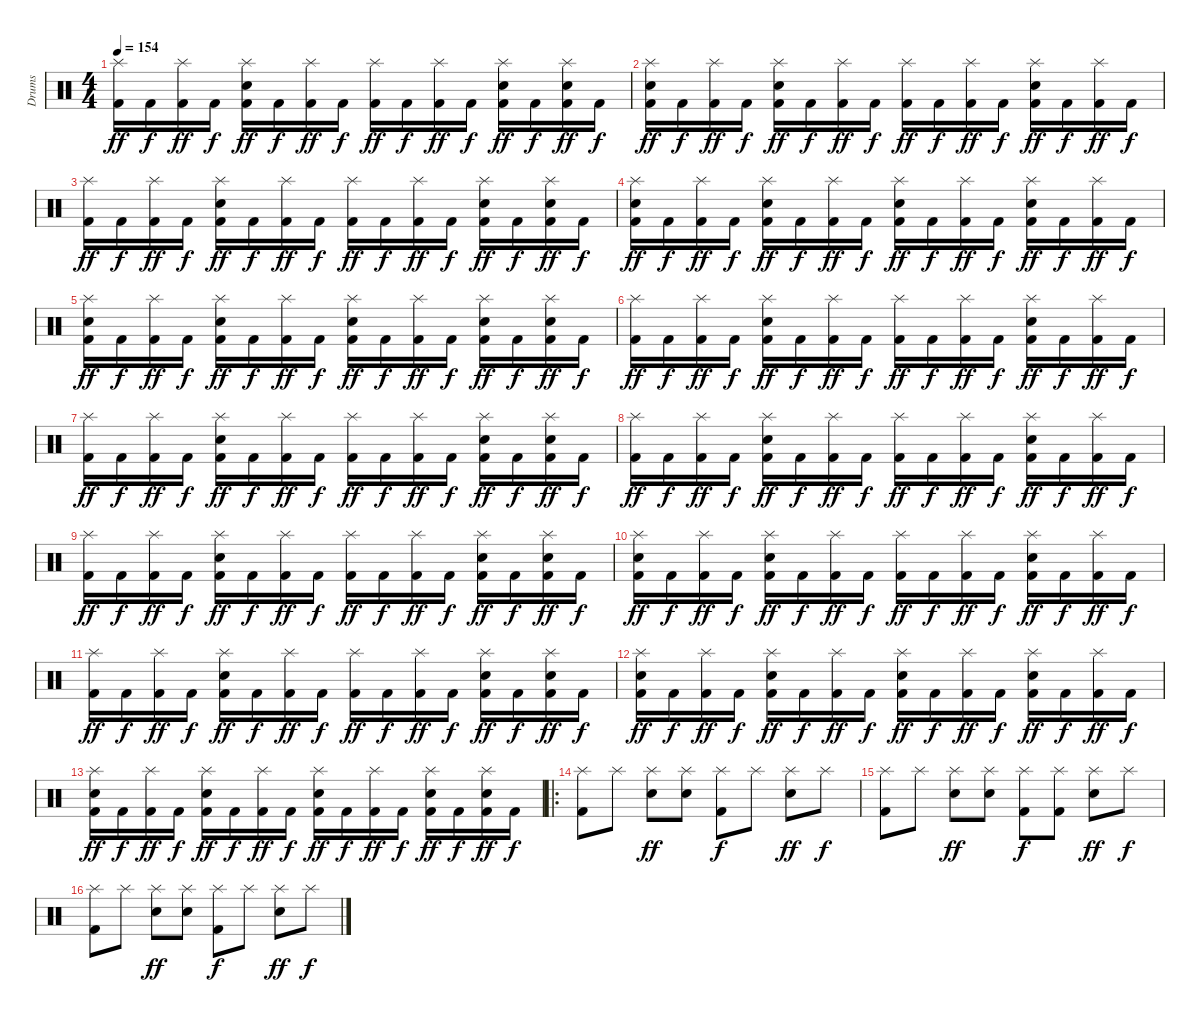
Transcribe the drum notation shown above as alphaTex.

\track ("Drums" "Drums") {instrument percussion}
\staff {score}
\articulation defaults
\ts (4 4)
\tempo 154
\clef neutral
\ks c
("Splash (hit)" "Kick (hit) 2").16{dy ff} "Kick (hit) 2".16{dy f} ("Splash (hit)" "Kick (hit) 2").16{dy ff} "Kick (hit) 2".16{dy f} ("Splash (hit)" "Snare (hit) 2" "Kick (hit) 2").16{dy ff} "Kick (hit) 2".16{dy f} ("Splash (hit)" "Kick (hit) 2").16{dy ff} "Kick (hit) 2".16{dy f} ("Splash (hit)" "Kick (hit) 2").16{dy ff} "Kick (hit) 2".16{dy f} ("Splash (hit)" "Kick (hit) 2").16{dy ff} "Kick (hit) 2".16{dy f} ("Splash (hit)" "Snare (hit) 2" "Kick (hit) 2").16{dy ff} "Kick (hit) 2".16{dy f} ("Splash (hit)" "Snare (hit) 2" "Kick (hit) 2").16{dy ff} "Kick (hit) 2".16{dy f} |
("Splash (hit)" "Snare (hit) 2" "Kick (hit) 2").16{dy ff} "Kick (hit) 2".16{dy f} ("Splash (hit)" "Kick (hit) 2").16{dy ff} "Kick (hit) 2".16{dy f} ("Splash (hit)" "Snare (hit) 2" "Kick (hit) 2").16{dy ff} "Kick (hit) 2".16{dy f} ("Splash (hit)" "Kick (hit) 2").16{dy ff} "Kick (hit) 2".16{dy f} ("Splash (hit)" "Kick (hit) 2").16{dy ff} "Kick (hit) 2".16{dy f} ("Splash (hit)" "Kick (hit) 2").16{dy ff} "Kick (hit) 2".16{dy f} ("Splash (hit)" "Snare (hit) 2" "Kick (hit) 2").16{dy ff} "Kick (hit) 2".16{dy f} ("Splash (hit)" "Kick (hit) 2").16{dy ff} "Kick (hit) 2".16{dy f} |
("Splash (hit)" "Kick (hit) 2").16{dy ff} "Kick (hit) 2".16{dy f} ("Splash (hit)" "Kick (hit) 2").16{dy ff} "Kick (hit) 2".16{dy f} ("Splash (hit)" "Snare (hit) 2" "Kick (hit) 2").16{dy ff} "Kick (hit) 2".16{dy f} ("Splash (hit)" "Kick (hit) 2").16{dy ff} "Kick (hit) 2".16{dy f} ("Splash (hit)" "Kick (hit) 2").16{dy ff} "Kick (hit) 2".16{dy f} ("Splash (hit)" "Kick (hit) 2").16{dy ff} "Kick (hit) 2".16{dy f} ("Splash (hit)" "Snare (hit) 2" "Kick (hit) 2").16{dy ff} "Kick (hit) 2".16{dy f} ("Splash (hit)" "Snare (hit) 2" "Kick (hit) 2").16{dy ff} "Kick (hit) 2".16{dy f} |
("Splash (hit)" "Snare (hit) 2" "Kick (hit) 2").16{dy ff} "Kick (hit) 2".16{dy f} ("Splash (hit)" "Kick (hit) 2").16{dy ff} "Kick (hit) 2".16{dy f} ("Splash (hit)" "Snare (hit) 2" "Kick (hit) 2").16{dy ff} "Kick (hit) 2".16{dy f} ("Splash (hit)" "Kick (hit) 2").16{dy ff} "Kick (hit) 2".16{dy f} ("Splash (hit)" "Snare (hit) 2" "Kick (hit) 2").16{dy ff} "Kick (hit) 2".16{dy f} ("Splash (hit)" "Kick (hit) 2").16{dy ff} "Kick (hit) 2".16{dy f} ("Splash (hit)" "Snare (hit) 2" "Kick (hit) 2").16{dy ff} "Kick (hit) 2".16{dy f} ("Splash (hit)" "Kick (hit) 2").16{dy ff} "Kick (hit) 2".16{dy f} |
("Splash (hit)" "Snare (hit) 2" "Kick (hit) 2").16{dy ff} "Kick (hit) 2".16{dy f} ("Splash (hit)" "Kick (hit) 2").16{dy ff} "Kick (hit) 2".16{dy f} ("Splash (hit)" "Snare (hit) 2" "Kick (hit) 2").16{dy ff} "Kick (hit) 2".16{dy f} ("Splash (hit)" "Kick (hit) 2").16{dy ff} "Kick (hit) 2".16{dy f} ("Splash (hit)" "Snare (hit) 2" "Kick (hit) 2").16{dy ff} "Kick (hit) 2".16{dy f} ("Splash (hit)" "Kick (hit) 2").16{dy ff} "Kick (hit) 2".16{dy f} ("Splash (hit)" "Snare (hit) 2" "Kick (hit) 2").16{dy ff} "Kick (hit) 2".16{dy f} ("Splash (hit)" "Snare (hit) 2" "Kick (hit) 2").16{dy ff} "Kick (hit) 2".16{dy f} |
("Splash (hit)" "Kick (hit) 2").16{dy ff} "Kick (hit) 2".16{dy f} ("Splash (hit)" "Kick (hit) 2").16{dy ff} "Kick (hit) 2".16{dy f} ("Splash (hit)" "Snare (hit) 2" "Kick (hit) 2").16{dy ff} "Kick (hit) 2".16{dy f} ("Splash (hit)" "Kick (hit) 2").16{dy ff} "Kick (hit) 2".16{dy f} ("Splash (hit)" "Kick (hit) 2").16{dy ff} "Kick (hit) 2".16{dy f} ("Splash (hit)" "Kick (hit) 2").16{dy ff} "Kick (hit) 2".16{dy f} ("Splash (hit)" "Snare (hit) 2" "Kick (hit) 2").16{dy ff} "Kick (hit) 2".16{dy f} ("Splash (hit)" "Kick (hit) 2").16{dy ff} "Kick (hit) 2".16{dy f} |
("Splash (hit)" "Kick (hit) 2").16{dy ff} "Kick (hit) 2".16{dy f} ("Splash (hit)" "Kick (hit) 2").16{dy ff} "Kick (hit) 2".16{dy f} ("Splash (hit)" "Snare (hit) 2" "Kick (hit) 2").16{dy ff} "Kick (hit) 2".16{dy f} ("Splash (hit)" "Kick (hit) 2").16{dy ff} "Kick (hit) 2".16{dy f} ("Splash (hit)" "Kick (hit) 2").16{dy ff} "Kick (hit) 2".16{dy f} ("Splash (hit)" "Kick (hit) 2").16{dy ff} "Kick (hit) 2".16{dy f} ("Splash (hit)" "Snare (hit) 2" "Kick (hit) 2").16{dy ff} "Kick (hit) 2".16{dy f} ("Splash (hit)" "Snare (hit) 2" "Kick (hit) 2").16{dy ff} "Kick (hit) 2".16{dy f} |
("Splash (hit)" "Kick (hit) 2").16{dy ff} "Kick (hit) 2".16{dy f} ("Splash (hit)" "Kick (hit) 2").16{dy ff} "Kick (hit) 2".16{dy f} ("Splash (hit)" "Snare (hit) 2" "Kick (hit) 2").16{dy ff} "Kick (hit) 2".16{dy f} ("Splash (hit)" "Kick (hit) 2").16{dy ff} "Kick (hit) 2".16{dy f} ("Splash (hit)" "Kick (hit) 2").16{dy ff} "Kick (hit) 2".16{dy f} ("Splash (hit)" "Kick (hit) 2").16{dy ff} "Kick (hit) 2".16{dy f} ("Splash (hit)" "Snare (hit) 2" "Kick (hit) 2").16{dy ff} "Kick (hit) 2".16{dy f} ("Splash (hit)" "Kick (hit) 2").16{dy ff} "Kick (hit) 2".16{dy f} |
("Splash (hit)" "Kick (hit) 2").16{dy ff} "Kick (hit) 2".16{dy f} ("Splash (hit)" "Kick (hit) 2").16{dy ff} "Kick (hit) 2".16{dy f} ("Splash (hit)" "Snare (hit) 2" "Kick (hit) 2").16{dy ff} "Kick (hit) 2".16{dy f} ("Splash (hit)" "Kick (hit) 2").16{dy ff} "Kick (hit) 2".16{dy f} ("Splash (hit)" "Kick (hit) 2").16{dy ff} "Kick (hit) 2".16{dy f} ("Splash (hit)" "Kick (hit) 2").16{dy ff} "Kick (hit) 2".16{dy f} ("Splash (hit)" "Snare (hit) 2" "Kick (hit) 2").16{dy ff} "Kick (hit) 2".16{dy f} ("Splash (hit)" "Snare (hit) 2" "Kick (hit) 2").16{dy ff} "Kick (hit) 2".16{dy f} |
("Splash (hit)" "Snare (hit) 2" "Kick (hit) 2").16{dy ff} "Kick (hit) 2".16{dy f} ("Splash (hit)" "Kick (hit) 2").16{dy ff} "Kick (hit) 2".16{dy f} ("Splash (hit)" "Snare (hit) 2" "Kick (hit) 2").16{dy ff} "Kick (hit) 2".16{dy f} ("Splash (hit)" "Kick (hit) 2").16{dy ff} "Kick (hit) 2".16{dy f} ("Splash (hit)" "Kick (hit) 2").16{dy ff} "Kick (hit) 2".16{dy f} ("Splash (hit)" "Kick (hit) 2").16{dy ff} "Kick (hit) 2".16{dy f} ("Splash (hit)" "Snare (hit) 2" "Kick (hit) 2").16{dy ff} "Kick (hit) 2".16{dy f} ("Splash (hit)" "Kick (hit) 2").16{dy ff} "Kick (hit) 2".16{dy f} |
("Splash (hit)" "Kick (hit) 2").16{dy ff} "Kick (hit) 2".16{dy f} ("Splash (hit)" "Kick (hit) 2").16{dy ff} "Kick (hit) 2".16{dy f} ("Splash (hit)" "Snare (hit) 2" "Kick (hit) 2").16{dy ff} "Kick (hit) 2".16{dy f} ("Splash (hit)" "Kick (hit) 2").16{dy ff} "Kick (hit) 2".16{dy f} ("Splash (hit)" "Kick (hit) 2").16{dy ff} "Kick (hit) 2".16{dy f} ("Splash (hit)" "Kick (hit) 2").16{dy ff} "Kick (hit) 2".16{dy f} ("Splash (hit)" "Snare (hit) 2" "Kick (hit) 2").16{dy ff} "Kick (hit) 2".16{dy f} ("Splash (hit)" "Snare (hit) 2" "Kick (hit) 2").16{dy ff} "Kick (hit) 2".16{dy f} |
("Splash (hit)" "Snare (hit) 2" "Kick (hit) 2").16{dy ff} "Kick (hit) 2".16{dy f} ("Splash (hit)" "Kick (hit) 2").16{dy ff} "Kick (hit) 2".16{dy f} ("Splash (hit)" "Snare (hit) 2" "Kick (hit) 2").16{dy ff} "Kick (hit) 2".16{dy f} ("Splash (hit)" "Kick (hit) 2").16{dy ff} "Kick (hit) 2".16{dy f} ("Splash (hit)" "Snare (hit) 2" "Kick (hit) 2").16{dy ff} "Kick (hit) 2".16{dy f} ("Splash (hit)" "Kick (hit) 2").16{dy ff} "Kick (hit) 2".16{dy f} ("Splash (hit)" "Snare (hit) 2" "Kick (hit) 2").16{dy ff} "Kick (hit) 2".16{dy f} ("Splash (hit)" "Kick (hit) 2").16{dy ff} "Kick (hit) 2".16{dy f} |
("Splash (hit)" "Snare (hit) 2" "Kick (hit) 2").16{dy ff} "Kick (hit) 2".16{dy f} ("Splash (hit)" "Kick (hit) 2").16{dy ff} "Kick (hit) 2".16{dy f} ("Splash (hit)" "Snare (hit) 2" "Kick (hit) 2").16{dy ff} "Kick (hit) 2".16{dy f} ("Splash (hit)" "Kick (hit) 2").16{dy ff} "Kick (hit) 2".16{dy f} ("Splash (hit)" "Snare (hit) 2" "Kick (hit) 2").16{dy ff} "Kick (hit) 2".16{dy f} ("Splash (hit)" "Kick (hit) 2").16{dy ff} "Kick (hit) 2".16{dy f} ("Splash (hit)" "Snare (hit) 2" "Kick (hit) 2").16{dy ff} "Kick (hit) 2".16{dy f} ("Splash (hit)" "Snare (hit) 2" "Kick (hit) 2").16{dy ff} "Kick (hit) 2".16{dy f} |
\ro
("Splash (hit)" "Kick (hit) 2").8 "Splash (hit)".8 ("Splash (hit)" "Snare (hit) 2").8{dy ff} ("Splash (hit)" "Snare (hit) 2").8 ("Splash (hit)" "Kick (hit) 2").8{dy f} "Splash (hit)".8 ("Splash (hit)" "Snare (hit) 2").8{dy ff} "Splash (hit)".8{dy f} |
("Splash (hit)" "Kick (hit) 2").8 "Splash (hit)".8 ("Splash (hit)" "Snare (hit) 2").8{dy ff} ("Splash (hit)" "Snare (hit) 2").8 ("Splash (hit)" "Kick (hit) 2").8{dy f} ("Splash (hit)" "Kick (hit) 2").8 ("Splash (hit)" "Snare (hit) 2").8{dy ff} "Splash (hit)".8{dy f} |
("Splash (hit)" "Kick (hit) 2").8 "Splash (hit)".8 ("Splash (hit)" "Snare (hit) 2").8{dy ff} ("Splash (hit)" "Snare (hit) 2").8 ("Splash (hit)" "Kick (hit) 2").8{dy f} "Splash (hit)".8 ("Splash (hit)" "Snare (hit) 2").8{dy ff} "Splash (hit)".8{dy f}
